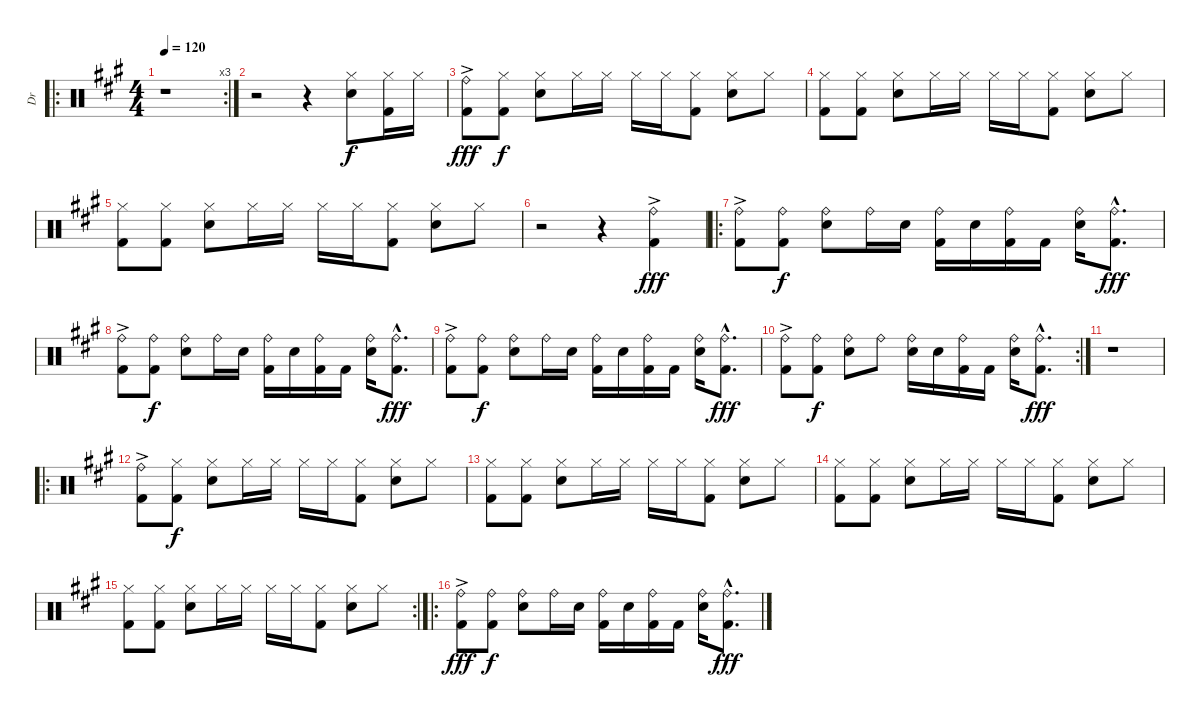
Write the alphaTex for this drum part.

\track ("Dr" "Dr") {instrument percussion}
\staff {score}
\articulation defaults
\ro
\rc 3
\ts (4 4)
\tempo 120
\clef neutral
\ks a
r.1{dy f} |
r.2 r.4 ("Hi-Hat (closed)" "Electric Snare (hit)").8 ("Hi-Hat (closed)" "Kick (hit) 2").16 "Hi-Hat (closed)".16 |
("Ride (bell)"{ac} "Kick (hit) 2"{ac}).8{dy fff} ("Hi-Hat (closed)" "Kick (hit) 2").8{dy f} ("Hi-Hat (closed)" "Electric Snare (hit)").8 "Hi-Hat (closed)".16 "Hi-Hat (closed)".16 "Hi-Hat (closed)".16 "Hi-Hat (closed)".16 ("Hi-Hat (closed)" "Kick (hit) 2").8 ("Hi-Hat (closed)" "Electric Snare (hit)").8 "Hi-Hat (closed)".8 |
("Hi-Hat (closed)" "Kick (hit) 2").8 ("Hi-Hat (closed)" "Kick (hit) 2").8 ("Hi-Hat (closed)" "Electric Snare (hit)").8 "Hi-Hat (closed)".16 "Hi-Hat (closed)".16 "Hi-Hat (closed)".16 "Hi-Hat (closed)".16 ("Hi-Hat (closed)" "Kick (hit) 2").8 ("Hi-Hat (closed)" "Electric Snare (hit)").8 "Hi-Hat (closed)".8 |
("Hi-Hat (closed)" "Kick (hit) 2").8 ("Hi-Hat (closed)" "Kick (hit) 2").8 ("Hi-Hat (closed)" "Electric Snare (hit)").8 "Hi-Hat (closed)".16 "Hi-Hat (closed)".16 "Hi-Hat (closed)".16 "Hi-Hat (closed)".16 ("Hi-Hat (closed)" "Kick (hit) 2").8 ("Hi-Hat (closed)" "Electric Snare (hit)").8 "Hi-Hat (closed)".8 |
r.2 r.4 ("Ride (bell)"{ac} "Kick (hit) 2"{ac}).4{dy fff} |
\ro
("Ride (bell)"{ac} "Kick (hit) 2"{ac}).8 ("Ride (bell)" "Kick (hit) 2").8{dy f} ("Ride (bell)" "Electric Snare (hit)").8 "Ride (bell)".16 "Electric Snare (hit)".16 ("Ride (bell)" "Kick (hit) 2").16 "Electric Snare (hit)".16 ("Ride (bell)" "Kick (hit) 2").16 "Kick (hit) 2".16 ("Ride (bell)" "Electric Snare (hit)").16 ("Ride (bell)"{hac} "Kick (hit) 2"{hac}).8{d dy fff} |
("Ride (bell)"{ac} "Kick (hit) 2"{ac}).8 ("Ride (bell)" "Kick (hit) 2").8{dy f} ("Ride (bell)" "Electric Snare (hit)").8 "Ride (bell)".16 "Electric Snare (hit)".16 ("Ride (bell)" "Kick (hit) 2").16 "Electric Snare (hit)".16 ("Ride (bell)" "Kick (hit) 2").16 "Kick (hit) 2".16 ("Ride (bell)" "Electric Snare (hit)").16 ("Ride (bell)"{hac} "Kick (hit) 2"{hac}).8{d dy fff} |
("Ride (bell)"{ac} "Kick (hit) 2"{ac}).8 ("Ride (bell)" "Kick (hit) 2").8{dy f} ("Ride (bell)" "Electric Snare (hit)").8 "Ride (bell)".16 "Electric Snare (hit)".16 ("Ride (bell)" "Kick (hit) 2").16 "Electric Snare (hit)".16 ("Ride (bell)" "Kick (hit) 2").16 "Kick (hit) 2".16 ("Ride (bell)" "Electric Snare (hit)").16 ("Ride (bell)"{hac} "Kick (hit) 2"{hac}).8{d dy fff} |
\rc 2
("Ride (bell)"{ac} "Kick (hit) 2"{ac}).8 ("Ride (bell)" "Kick (hit) 2").8{dy f} ("Ride (bell)" "Electric Snare (hit)").8 "Ride (bell)".8 ("Ride (bell)" "Electric Snare (hit)").16 "Electric Snare (hit)".16 ("Ride (bell)" "Kick (hit) 2").16 "Kick (hit) 2".16 ("Ride (bell)" "Electric Snare (hit)").16 ("Ride (bell)"{hac} "Kick (hit) 2"{hac}).8{d dy fff} |
r.1 |
\ro
("Ride (bell)"{ac} "Kick (hit) 2"{ac}).8 ("Hi-Hat (closed)" "Kick (hit) 2").8{dy f} ("Hi-Hat (closed)" "Electric Snare (hit)").8 "Hi-Hat (closed)".16 "Hi-Hat (closed)".16 "Hi-Hat (closed)".16 "Hi-Hat (closed)".16 ("Hi-Hat (closed)" "Kick (hit) 2").8 ("Hi-Hat (closed)" "Electric Snare (hit)").8 "Hi-Hat (closed)".8 |
("Hi-Hat (closed)" "Kick (hit) 2").8 ("Hi-Hat (closed)" "Kick (hit) 2").8 ("Hi-Hat (closed)" "Electric Snare (hit)").8 "Hi-Hat (closed)".16 "Hi-Hat (closed)".16 "Hi-Hat (closed)".16 "Hi-Hat (closed)".16 ("Hi-Hat (closed)" "Kick (hit) 2").8 ("Hi-Hat (closed)" "Electric Snare (hit)").8 "Hi-Hat (closed)".8 |
("Hi-Hat (closed)" "Kick (hit) 2").8 ("Hi-Hat (closed)" "Kick (hit) 2").8 ("Hi-Hat (closed)" "Electric Snare (hit)").8 "Hi-Hat (closed)".16 "Hi-Hat (closed)".16 "Hi-Hat (closed)".16 "Hi-Hat (closed)".16 ("Hi-Hat (closed)" "Kick (hit) 2").8 ("Hi-Hat (closed)" "Electric Snare (hit)").8 "Hi-Hat (closed)".8 |
\rc 2
("Hi-Hat (closed)" "Kick (hit) 2").8 ("Hi-Hat (closed)" "Kick (hit) 2").8 ("Hi-Hat (closed)" "Electric Snare (hit)").8 "Hi-Hat (closed)".16 "Hi-Hat (closed)".16 "Hi-Hat (closed)".16 "Hi-Hat (closed)".16 ("Hi-Hat (closed)" "Kick (hit) 2").8 ("Hi-Hat (closed)" "Electric Snare (hit)").8 "Hi-Hat (closed)".8 |
\ro
("Ride (bell)"{ac} "Kick (hit) 2"{ac}).8{dy fff} ("Ride (bell)" "Kick (hit) 2").8{dy f} ("Ride (bell)" "Electric Snare (hit)").8 "Ride (bell)".16 "Electric Snare (hit)".16 ("Ride (bell)" "Kick (hit) 2").16 "Electric Snare (hit)".16 ("Ride (bell)" "Kick (hit) 2").16 "Kick (hit) 2".16 ("Ride (bell)" "Electric Snare (hit)").16 ("Ride (bell)"{hac} "Kick (hit) 2"{hac}).8{d dy fff}
